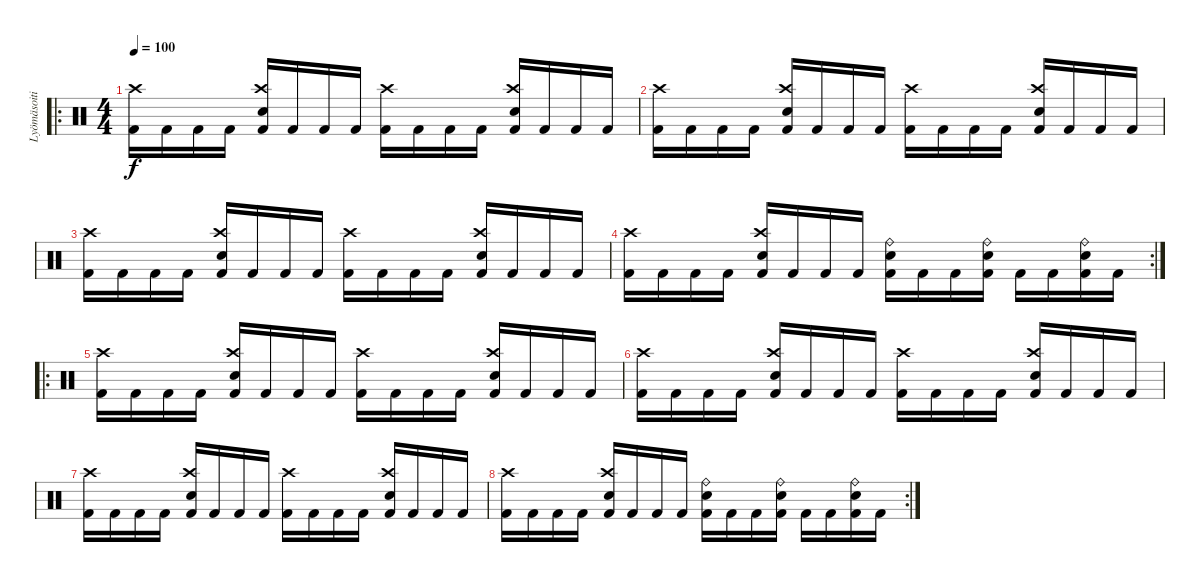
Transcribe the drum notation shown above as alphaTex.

\track ("Lyömäsoitin" "Lyömäsoiti") {instrument percussion}
\staff {score}
\articulation defaults
\ro
\ts (4 4)
\tempo 100
\clef neutral
\ks c
("Kick (hit) 2" "Crash high (hit)").16{dy f} "Kick (hit) 2".16 "Kick (hit) 2".16 "Kick (hit) 2".16 ("Kick (hit) 2" "Crash high (hit)" "Electric Snare (hit)").16 "Kick (hit) 2".16 "Kick (hit) 2".16 "Kick (hit) 2".16 ("Kick (hit) 2" "Crash high (hit)").16 "Kick (hit) 2".16 "Kick (hit) 2".16 "Kick (hit) 2".16 ("Kick (hit) 2" "Crash high (hit)" "Electric Snare (hit)").16 "Kick (hit) 2".16 "Kick (hit) 2".16 "Kick (hit) 2".16 |
("Kick (hit) 2" "Crash high (hit)").16 "Kick (hit) 2".16 "Kick (hit) 2".16 "Kick (hit) 2".16 ("Kick (hit) 2" "Crash high (hit)" "Electric Snare (hit)").16 "Kick (hit) 2".16 "Kick (hit) 2".16 "Kick (hit) 2".16 ("Kick (hit) 2" "Crash high (hit)").16 "Kick (hit) 2".16 "Kick (hit) 2".16 "Kick (hit) 2".16 ("Kick (hit) 2" "Crash high (hit)" "Electric Snare (hit)").16 "Kick (hit) 2".16 "Kick (hit) 2".16 "Kick (hit) 2".16 |
("Kick (hit) 2" "Crash high (hit)").16 "Kick (hit) 2".16 "Kick (hit) 2".16 "Kick (hit) 2".16 ("Kick (hit) 2" "Crash high (hit)" "Electric Snare (hit)").16 "Kick (hit) 2".16 "Kick (hit) 2".16 "Kick (hit) 2".16 ("Kick (hit) 2" "Crash high (hit)").16 "Kick (hit) 2".16 "Kick (hit) 2".16 "Kick (hit) 2".16 ("Kick (hit) 2" "Crash high (hit)" "Electric Snare (hit)").16 "Kick (hit) 2".16 "Kick (hit) 2".16 "Kick (hit) 2".16 |
\rc 2
("Kick (hit) 2" "Crash high (hit)").16 "Kick (hit) 2".16 "Kick (hit) 2".16 "Kick (hit) 2".16 ("Kick (hit) 2" "Crash high (hit)" "Electric Snare (hit)").16 "Kick (hit) 2".16 "Kick (hit) 2".16 "Kick (hit) 2".16 ("Kick (hit) 2" "Electric Snare (hit)" "Ride (bell)").16 "Kick (hit) 2".16 "Kick (hit) 2".16 ("Kick (hit) 2" "Electric Snare (hit)" "Ride (bell)").16 "Kick (hit) 2".16 "Kick (hit) 2".16 ("Kick (hit) 2" "Electric Snare (hit)" "Ride (bell)").16 "Kick (hit) 2".16 |
\ro
("Kick (hit) 2" "Crash high (hit)").16 "Kick (hit) 2".16 "Kick (hit) 2".16 "Kick (hit) 2".16 ("Kick (hit) 2" "Crash high (hit)" "Electric Snare (hit)").16 "Kick (hit) 2".16 "Kick (hit) 2".16 "Kick (hit) 2".16 ("Kick (hit) 2" "Crash high (hit)").16 "Kick (hit) 2".16 "Kick (hit) 2".16 "Kick (hit) 2".16 ("Kick (hit) 2" "Crash high (hit)" "Electric Snare (hit)").16 "Kick (hit) 2".16 "Kick (hit) 2".16 "Kick (hit) 2".16 |
("Kick (hit) 2" "Crash high (hit)").16 "Kick (hit) 2".16 "Kick (hit) 2".16 "Kick (hit) 2".16 ("Kick (hit) 2" "Crash high (hit)" "Electric Snare (hit)").16 "Kick (hit) 2".16 "Kick (hit) 2".16 "Kick (hit) 2".16 ("Kick (hit) 2" "Crash high (hit)").16 "Kick (hit) 2".16 "Kick (hit) 2".16 "Kick (hit) 2".16 ("Kick (hit) 2" "Crash high (hit)" "Electric Snare (hit)").16 "Kick (hit) 2".16 "Kick (hit) 2".16 "Kick (hit) 2".16 |
("Kick (hit) 2" "Crash high (hit)").16 "Kick (hit) 2".16 "Kick (hit) 2".16 "Kick (hit) 2".16 ("Kick (hit) 2" "Crash high (hit)" "Electric Snare (hit)").16 "Kick (hit) 2".16 "Kick (hit) 2".16 "Kick (hit) 2".16 ("Kick (hit) 2" "Crash high (hit)").16 "Kick (hit) 2".16 "Kick (hit) 2".16 "Kick (hit) 2".16 ("Kick (hit) 2" "Crash high (hit)" "Electric Snare (hit)").16 "Kick (hit) 2".16 "Kick (hit) 2".16 "Kick (hit) 2".16 |
\rc 2
("Kick (hit) 2" "Crash high (hit)").16 "Kick (hit) 2".16 "Kick (hit) 2".16 "Kick (hit) 2".16 ("Kick (hit) 2" "Crash high (hit)" "Electric Snare (hit)").16 "Kick (hit) 2".16 "Kick (hit) 2".16 "Kick (hit) 2".16 ("Kick (hit) 2" "Electric Snare (hit)" "Ride (bell)").16 "Kick (hit) 2".16 "Kick (hit) 2".16 ("Kick (hit) 2" "Electric Snare (hit)" "Ride (bell)").16 "Kick (hit) 2".16 "Kick (hit) 2".16 ("Kick (hit) 2" "Electric Snare (hit)" "Ride (bell)").16 "Kick (hit) 2".16
